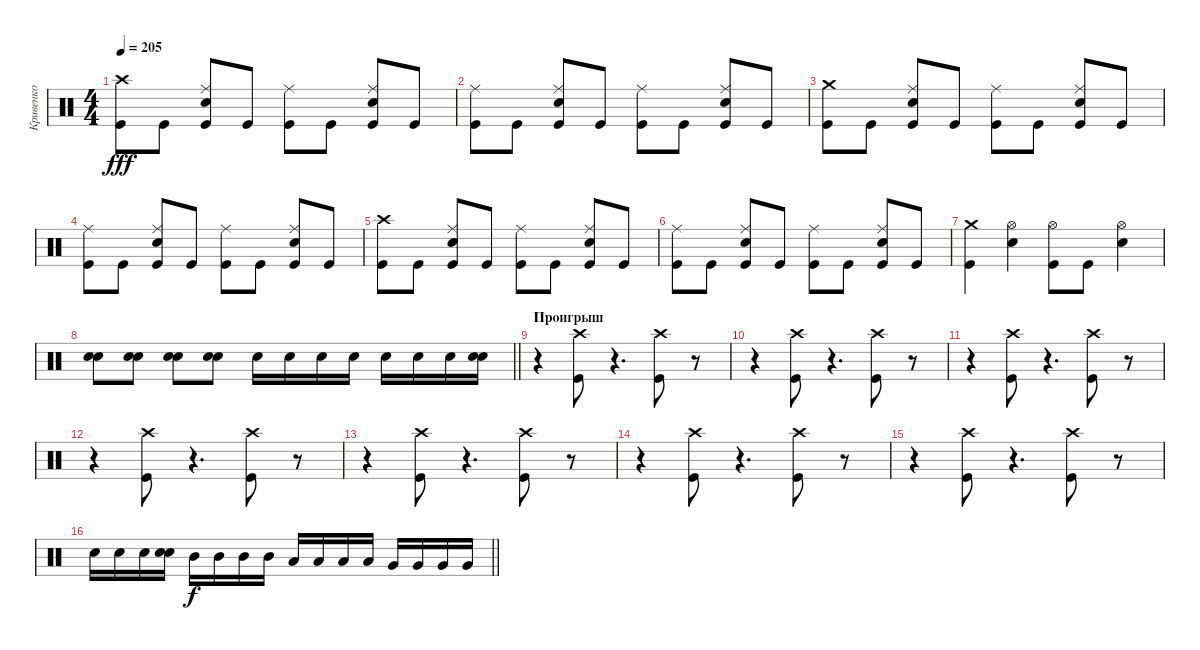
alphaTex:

\track ("Кривенко" "Кривенко") {instrument percussion}
\staff {score}
\articulation defaults
\ts (4 4)
\tempo 205
\clef neutral
\ks c
("Crash high (hit)" "Kick (hit)").8{dy fff} "Kick (hit)".8 ("Ride (middle)" "Electric Snare (hit)" "Kick (hit)").8 "Kick (hit)".8 ("Ride (middle)" "Kick (hit)").8 "Kick (hit)".8 ("Ride (middle)" "Electric Snare (hit)" "Kick (hit)").8 "Kick (hit)".8 |
("Ride (middle)" "Kick (hit)").8 "Kick (hit)".8 ("Ride (middle)" "Electric Snare (hit)" "Kick (hit)").8 "Kick (hit)".8 ("Ride (middle)" "Kick (hit)").8 "Kick (hit)".8 ("Ride (middle)" "Electric Snare (hit)" "Kick (hit)").8 "Kick (hit)".8 |
("Crash medium (hit)" "Kick (hit)").8 "Kick (hit)".8 ("Ride (middle)" "Electric Snare (hit)" "Kick (hit)").8 "Kick (hit)".8 ("Ride (middle)" "Kick (hit)").8 "Kick (hit)".8 ("Ride (middle)" "Electric Snare (hit)" "Kick (hit)").8 "Kick (hit)".8 |
("Ride (middle)" "Kick (hit)").8 "Kick (hit)".8 ("Ride (middle)" "Electric Snare (hit)" "Kick (hit)").8 "Kick (hit)".8 ("Ride (middle)" "Kick (hit)").8 "Kick (hit)".8 ("Ride (middle)" "Electric Snare (hit)" "Kick (hit)").8 "Kick (hit)".8 |
("Crash high (hit)" "Kick (hit)").8 "Kick (hit)".8 ("Ride (middle)" "Electric Snare (hit)" "Kick (hit)").8 "Kick (hit)".8 ("Ride (middle)" "Kick (hit)").8 "Kick (hit)".8 ("Ride (middle)" "Electric Snare (hit)" "Kick (hit)").8 "Kick (hit)".8 |
("Ride (middle)" "Kick (hit)").8 "Kick (hit)".8 ("Ride (middle)" "Electric Snare (hit)" "Kick (hit)").8 "Kick (hit)".8 ("Ride (middle)" "Kick (hit)").8 "Kick (hit)".8 ("Ride (middle)" "Electric Snare (hit)" "Kick (hit)").8 "Kick (hit)".8 |
("Crash medium (hit)" "Kick (hit)").4 ("Hi-Hat (open)" "Electric Snare (hit)").4 ("Hi-Hat (open)" "Kick (hit)").8 "Kick (hit)".8 ("Hi-Hat (open)" "Electric Snare (hit)").4 |
\barLineRight lightlight
("Electric Snare (hit)" "Electric Snare (hit)").8 ("Electric Snare (hit)" "Electric Snare (hit)").8 ("Electric Snare (hit)" "Electric Snare (hit)").8 ("Electric Snare (hit)" "Electric Snare (hit)").8 "Electric Snare (hit)".16 "Electric Snare (hit)".16 "Electric Snare (hit)".16 "Electric Snare (hit)".16 "Electric Snare (hit)".16 "Electric Snare (hit)".16 "Electric Snare (hit)".16 ("Electric Snare (hit)" "Electric Snare (hit)").16 |
\section ("" "Проигрыш")
r.4 ("Crash high (hit)" "Kick (hit)").8 r.4{d} ("Crash high (hit)" "Kick (hit)").8 r.8 |
r.4 ("Crash high (hit)" "Kick (hit)").8 r.4{d} ("Crash high (hit)" "Kick (hit)").8 r.8 |
r.4 ("Crash high (hit)" "Kick (hit)").8 r.4{d} ("Crash high (hit)" "Kick (hit)").8 r.8 |
r.4 ("Crash high (hit)" "Kick (hit)").8 r.4{d} ("Crash high (hit)" "Kick (hit)").8 r.8 |
r.4 ("Crash high (hit)" "Kick (hit)").8 r.4{d} ("Crash high (hit)" "Kick (hit)").8 r.8 |
r.4 ("Crash high (hit)" "Kick (hit)").8 r.4{d} ("Crash high (hit)" "Kick (hit)").8 r.8 |
r.4 ("Crash high (hit)" "Kick (hit)").8 r.4{d} ("Crash high (hit)" "Kick (hit)").8 r.8 |
\barLineRight lightlight "Electric Snare (hit)".16 "Electric Snare (hit)".16 "Electric Snare (hit)".16
("Electric Snare (hit)" "Electric Snare (hit)").16 "Mid Tom (hit)".16{dy f} "Mid Tom (hit)".16 "Mid Tom (hit)".16 "Mid Tom (hit)".16 "Low Tom (hit)".16 "Low Tom (hit)".16 "Low Tom (hit)".16 "Low Tom (hit)".16 "Very Low Tom (hit)".16 "Very Low Tom (hit)".16 "Very Low Tom (hit)".16 "Very Low Tom (hit)".16
